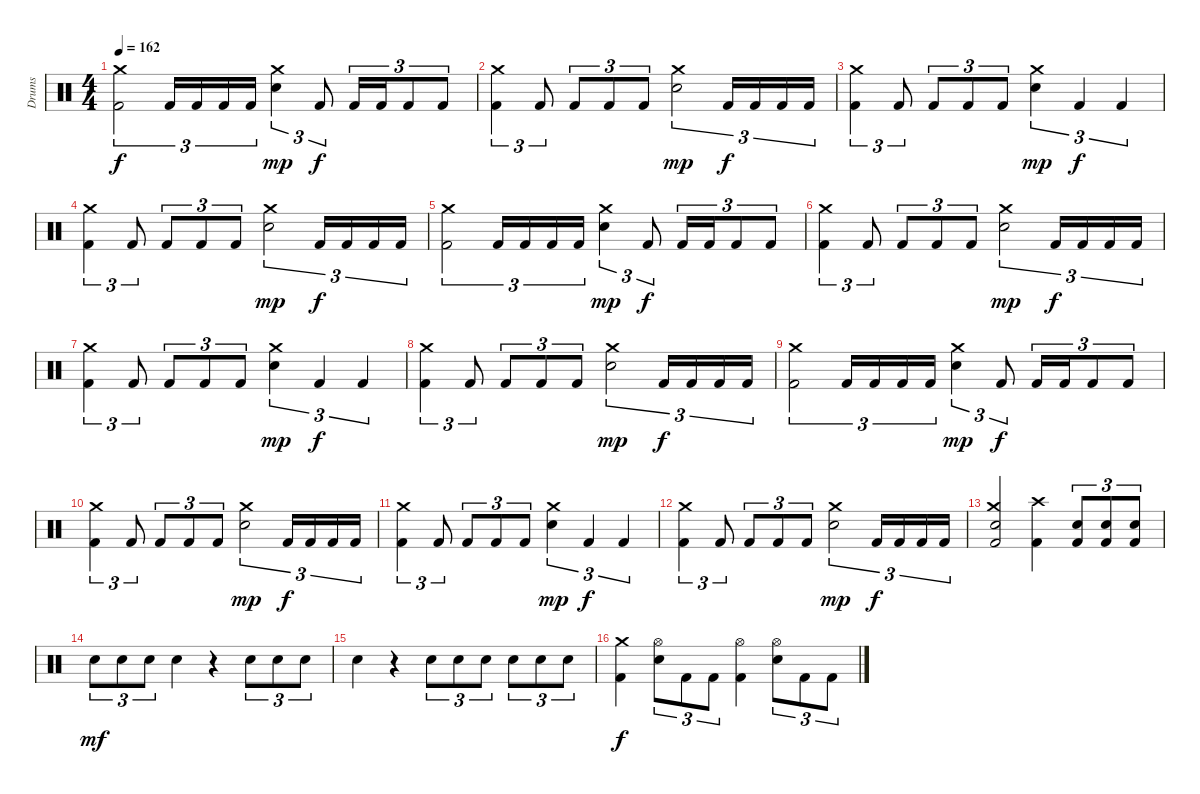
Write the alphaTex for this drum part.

\track ("Drums" "Drums") {instrument percussion}
\staff {score}
\articulation defaults
\ts (4 4)
\tempo 162
\clef neutral
\ks c
("Kick (hit) 2" "Crash medium (hit)").2{tu (3 2) dy f} "Kick (hit) 2".16{tu (3 2)} "Kick (hit) 2".16{tu (3 2)} "Kick (hit) 2".16{tu (3 2)} "Kick (hit) 2".16{tu (3 2)} ("Snare (hit) 2" "Crash medium (hit)").4{tu (3 2) dy mp} "Kick (hit) 2".8{tu (3 2) dy f} "Kick (hit) 2".16{tu (3 2)} "Kick (hit) 2".16{tu (3 2)} "Kick (hit) 2".8{tu (3 2)} "Kick (hit) 2".8{tu (3 2)} |
("Kick (hit) 2" "Crash medium (hit)").4{tu (3 2) volume 16} "Kick (hit) 2".8{tu (3 2)} "Kick (hit) 2".8{tu (3 2)} "Kick (hit) 2".8{tu (3 2)} "Kick (hit) 2".8{tu (3 2)} ("Snare (hit) 2" "Crash medium (hit)").2{tu (3 2) dy mp} "Kick (hit) 2".16{tu (3 2) dy f} "Kick (hit) 2".16{tu (3 2)} "Kick (hit) 2".16{tu (3 2)} "Kick (hit) 2".16{tu (3 2)} |
("Kick (hit) 2" "Crash medium (hit)").4{tu (3 2)} "Kick (hit) 2".8{tu (3 2)} "Kick (hit) 2".8{tu (3 2)} "Kick (hit) 2".8{tu (3 2)} "Kick (hit) 2".8{tu (3 2)} ("Snare (hit) 2" "Crash medium (hit)").4{tu (3 2) dy mp} "Kick (hit) 2".4{tu (3 2) dy f} "Kick (hit) 2".4{tu (3 2)} |
("Kick (hit) 2" "Crash medium (hit)").4{tu (3 2)} "Kick (hit) 2".8{tu (3 2)} "Kick (hit) 2".8{tu (3 2)} "Kick (hit) 2".8{tu (3 2)} "Kick (hit) 2".8{tu (3 2)} ("Snare (hit) 2" "Crash medium (hit)").2{tu (3 2) dy mp} "Kick (hit) 2".16{tu (3 2) dy f} "Kick (hit) 2".16{tu (3 2)} "Kick (hit) 2".16{tu (3 2)} "Kick (hit) 2".16{tu (3 2)} |
("Kick (hit) 2" "Crash medium (hit)").2{tu (3 2)} "Kick (hit) 2".16{tu (3 2)} "Kick (hit) 2".16{tu (3 2)} "Kick (hit) 2".16{tu (3 2)} "Kick (hit) 2".16{tu (3 2)} ("Snare (hit) 2" "Crash medium (hit)").4{tu (3 2) dy mp} "Kick (hit) 2".8{tu (3 2) dy f} "Kick (hit) 2".16{tu (3 2)} "Kick (hit) 2".16{tu (3 2)} "Kick (hit) 2".8{tu (3 2)} "Kick (hit) 2".8{tu (3 2)} |
("Kick (hit) 2" "Crash medium (hit)").4{tu (3 2) volume 16} "Kick (hit) 2".8{tu (3 2)} "Kick (hit) 2".8{tu (3 2)} "Kick (hit) 2".8{tu (3 2)} "Kick (hit) 2".8{tu (3 2)} ("Snare (hit) 2" "Crash medium (hit)").2{tu (3 2) dy mp} "Kick (hit) 2".16{tu (3 2) dy f} "Kick (hit) 2".16{tu (3 2)} "Kick (hit) 2".16{tu (3 2)} "Kick (hit) 2".16{tu (3 2)} |
("Kick (hit) 2" "Crash medium (hit)").4{tu (3 2)} "Kick (hit) 2".8{tu (3 2)} "Kick (hit) 2".8{tu (3 2)} "Kick (hit) 2".8{tu (3 2)} "Kick (hit) 2".8{tu (3 2)} ("Snare (hit) 2" "Crash medium (hit)").4{tu (3 2) dy mp} "Kick (hit) 2".4{tu (3 2) dy f} "Kick (hit) 2".4{tu (3 2)} |
("Kick (hit) 2" "Crash medium (hit)").4{tu (3 2)} "Kick (hit) 2".8{tu (3 2)} "Kick (hit) 2".8{tu (3 2)} "Kick (hit) 2".8{tu (3 2)} "Kick (hit) 2".8{tu (3 2)} ("Snare (hit) 2" "Crash medium (hit)").2{tu (3 2) dy mp} "Kick (hit) 2".16{tu (3 2) dy f} "Kick (hit) 2".16{tu (3 2)} "Kick (hit) 2".16{tu (3 2)} "Kick (hit) 2".16{tu (3 2)} |
("Kick (hit) 2" "Crash medium (hit)").2{tu (3 2)} "Kick (hit) 2".16{tu (3 2)} "Kick (hit) 2".16{tu (3 2)} "Kick (hit) 2".16{tu (3 2)} "Kick (hit) 2".16{tu (3 2)} ("Snare (hit) 2" "Crash medium (hit)").4{tu (3 2) dy mp} "Kick (hit) 2".8{tu (3 2) dy f} "Kick (hit) 2".16{tu (3 2)} "Kick (hit) 2".16{tu (3 2)} "Kick (hit) 2".8{tu (3 2)} "Kick (hit) 2".8{tu (3 2)} |
("Kick (hit) 2" "Crash medium (hit)").4{tu (3 2) volume 16} "Kick (hit) 2".8{tu (3 2)} "Kick (hit) 2".8{tu (3 2)} "Kick (hit) 2".8{tu (3 2)} "Kick (hit) 2".8{tu (3 2)} ("Snare (hit) 2" "Crash medium (hit)").2{tu (3 2) dy mp} "Kick (hit) 2".16{tu (3 2) dy f} "Kick (hit) 2".16{tu (3 2)} "Kick (hit) 2".16{tu (3 2)} "Kick (hit) 2".16{tu (3 2)} |
("Kick (hit) 2" "Crash medium (hit)").4{tu (3 2)} "Kick (hit) 2".8{tu (3 2)} "Kick (hit) 2".8{tu (3 2)} "Kick (hit) 2".8{tu (3 2)} "Kick (hit) 2".8{tu (3 2)} ("Snare (hit) 2" "Crash medium (hit)").4{tu (3 2) dy mp} "Kick (hit) 2".4{tu (3 2) dy f} "Kick (hit) 2".4{tu (3 2)} |
("Kick (hit) 2" "Crash medium (hit)").4{tu (3 2)} "Kick (hit) 2".8{tu (3 2)} "Kick (hit) 2".8{tu (3 2)} "Kick (hit) 2".8{tu (3 2)} "Kick (hit) 2".8{tu (3 2)} ("Snare (hit) 2" "Crash medium (hit)").2{tu (3 2) dy mp} "Kick (hit) 2".16{tu (3 2) dy f} "Kick (hit) 2".16{tu (3 2)} "Kick (hit) 2".16{tu (3 2)} "Kick (hit) 2".16{tu (3 2)} |
("Kick (hit) 2" "Snare (hit) 2" "Crash medium (hit)").2 ("Kick (hit) 2" "Crash high (hit)").4 ("Kick (hit) 2" "Snare (hit) 2").8{tu (3 2)} ("Kick (hit) 2" "Snare (hit) 2").8{tu (3 2)} ("Kick (hit) 2" "Snare (hit) 2").8{tu (3 2)} |
"Snare (hit) 2".8{tu (3 2) dy mf volume 16} "Snare (hit) 2".8{tu (3 2)} "Snare (hit) 2".8{tu (3 2)} "Snare (hit) 2".4 r.4 "Snare (hit) 2".8{tu (3 2)} "Snare (hit) 2".8{tu (3 2)} "Snare (hit) 2".8{tu (3 2)} |
"Snare (hit) 2".4 r.4 "Snare (hit) 2".8{tu (3 2)} "Snare (hit) 2".8{tu (3 2)} "Snare (hit) 2".8{tu (3 2)} "Snare (hit) 2".8{tu (3 2)} "Snare (hit) 2".8{tu (3 2)} "Snare (hit) 2".8{tu (3 2)} |
("Kick (hit) 2" "Crash medium (hit)").4{dy f} ("Electric Snare (hit)" "Hi-Hat (open)").8{tu (3 2)} "Kick (hit) 2".8{tu (3 2)} "Kick (hit) 2".8{tu (3 2)} ("Kick (hit) 2" "Hi-Hat (open)").4 ("Electric Snare (hit)" "Hi-Hat (open)").8{tu (3 2)} "Kick (hit) 2".8{tu (3 2)} "Kick (hit) 2".8{tu (3 2)}
